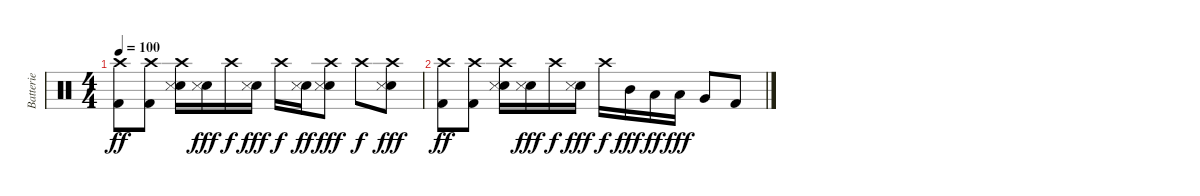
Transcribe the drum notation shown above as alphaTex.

\track ("Batterie" "Batterie") {instrument percussion}
\staff {score}
\articulation defaults
\ts (4 4)
\tempo 100
\clef neutral
\ks c
("Crash high (hit)" "Kick (hit) 2").8{dy ff} ("Crash high (hit)" "Kick (hit) 2").8 ("Crash high (hit)" "Snare (hit) 2" "Snare (side stick) 3").16 ("Snare (hit) 2" "Snare (side stick) 3").16{dy fff} "Crash high (hit)".16{dy f} ("Snare (hit) 2" "Snare (side stick) 3").16{dy fff} "Crash high (hit)".16{dy f} ("Snare (hit) 2" "Snare (side stick) 3").16{dy ff} ("Crash high (hit)" "Snare (hit) 2" "Snare (side stick) 3").8{dy fff} "Crash high (hit)".8{dy f} ("Crash high (hit)" "Snare (hit) 2" "Snare (side stick) 3").8{dy fff} |
("Crash high (hit)" "Kick (hit) 2").8{dy ff} ("Crash high (hit)" "Kick (hit) 2").8 ("Crash high (hit)" "Snare (hit) 2" "Snare (side stick) 3").16 ("Snare (hit) 2" "Snare (side stick) 3").16{dy fff} "Crash high (hit)".16{dy f} ("Snare (hit) 2" "Snare (side stick) 3").16{dy fff} "Crash high (hit)".16{dy f} "Mid Tom (hit)".16{dy fff} "Low Tom (hit)".16{dy ff} "Low Tom (hit)".16{dy fff} "Very Low Tom (hit)".8 "Kick (hit) 2".8
